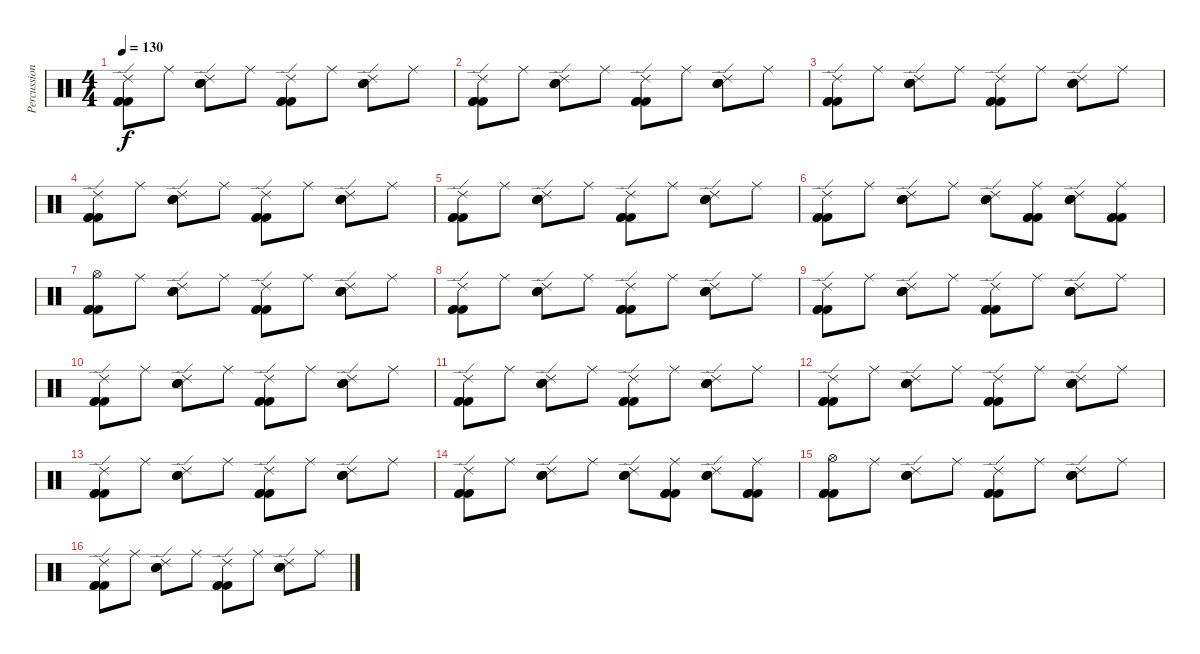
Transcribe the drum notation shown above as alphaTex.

\track ("Percussion" "Percussion") {instrument percussion}
\staff {score}
\articulation defaults
\ts (4 4)
\tempo 130
\clef neutral
\ks c
("Ride (edge) 2" "Kick (hit) 2" "Kick (hit) 2" "Kick (hit) 2").8{dy f} "Ride (middle)".8 ("Ride (edge) 2" "Electric Snare (hit)" "Electric Snare (hit)" "Electric Snare (hit)").8 "Ride (middle)".8 ("Ride (edge) 2" "Kick (hit) 2" "Kick (hit) 2" "Kick (hit) 2").8 "Ride (middle)".8 ("Ride (edge) 2" "Electric Snare (hit)" "Electric Snare (hit)" "Electric Snare (hit)").8 "Ride (middle)".8 |
("Ride (edge) 2" "Kick (hit) 2" "Kick (hit) 2" "Kick (hit) 2").8 "Ride (middle)".8 ("Ride (edge) 2" "Electric Snare (hit)" "Electric Snare (hit)" "Electric Snare (hit)").8 "Ride (middle)".8 ("Ride (edge) 2" "Kick (hit) 2" "Kick (hit) 2" "Kick (hit) 2").8 "Ride (middle)".8 ("Ride (edge) 2" "Electric Snare (hit)" "Electric Snare (hit)" "Electric Snare (hit)").8 "Ride (middle)".8 |
("Ride (edge) 2" "Kick (hit) 2" "Kick (hit) 2" "Kick (hit) 2").8 "Ride (middle)".8 ("Ride (edge) 2" "Electric Snare (hit)" "Electric Snare (hit)" "Electric Snare (hit)").8 "Ride (middle)".8 ("Ride (edge) 2" "Kick (hit) 2" "Kick (hit) 2" "Kick (hit) 2").8 "Ride (middle)".8 ("Ride (edge) 2" "Electric Snare (hit)" "Electric Snare (hit)" "Electric Snare (hit)").8 "Ride (middle)".8 |
("Ride (edge) 2" "Kick (hit) 2" "Kick (hit) 2" "Kick (hit) 2").8 "Ride (middle)".8 ("Ride (edge) 2" "Electric Snare (hit)" "Electric Snare (hit)" "Electric Snare (hit)").8 "Ride (middle)".8 ("Ride (edge) 2" "Kick (hit) 2" "Kick (hit) 2" "Kick (hit) 2").8 "Ride (middle)".8 ("Ride (edge) 2" "Electric Snare (hit)" "Electric Snare (hit)" "Electric Snare (hit)").8 "Ride (middle)".8 |
("Ride (edge) 2" "Kick (hit) 2" "Kick (hit) 2" "Kick (hit) 2").8 "Ride (middle)".8 ("Ride (edge) 2" "Electric Snare (hit)" "Electric Snare (hit)" "Electric Snare (hit)").8 "Ride (middle)".8 ("Ride (edge) 2" "Kick (hit) 2" "Kick (hit) 2" "Kick (hit) 2").8 "Ride (middle)".8 ("Ride (edge) 2" "Electric Snare (hit)" "Electric Snare (hit)" "Electric Snare (hit)").8 "Ride (middle)".8 |
("Ride (edge) 2" "Kick (hit) 2" "Kick (hit) 2" "Kick (hit) 2").8 "Ride (middle)".8 ("Ride (edge) 2" "Electric Snare (hit)" "Electric Snare (hit)" "Electric Snare (hit)").8 "Ride (middle)".8 ("Ride (edge) 2" "Electric Snare (hit)" "Electric Snare (hit)" "Electric Snare (hit)").8 ("Ride (middle)" "Kick (hit) 2" "Kick (hit) 2" "Kick (hit) 2").8 ("Ride (edge) 2" "Electric Snare (hit)" "Electric Snare (hit)" "Electric Snare (hit)").8 ("Ride (middle)" "Kick (hit) 2" "Kick (hit) 2" "Kick (hit) 2").8 |
("Hi-Hat (open)" "Kick (hit) 2" "Kick (hit) 2" "Kick (hit) 2").8 "Ride (middle)".8 ("Ride (edge) 2" "Electric Snare (hit)" "Electric Snare (hit)" "Electric Snare (hit)").8 "Ride (middle)".8 ("Ride (edge) 2" "Kick (hit) 2" "Kick (hit) 2" "Kick (hit) 2").8 "Ride (middle)".8 ("Ride (edge) 2" "Electric Snare (hit)" "Electric Snare (hit)" "Electric Snare (hit)").8 "Ride (middle)".8 |
("Ride (edge) 2" "Kick (hit) 2" "Kick (hit) 2" "Kick (hit) 2").8 "Ride (middle)".8 ("Ride (edge) 2" "Electric Snare (hit)" "Electric Snare (hit)" "Electric Snare (hit)").8 "Ride (middle)".8 ("Ride (edge) 2" "Kick (hit) 2" "Kick (hit) 2" "Kick (hit) 2").8 "Ride (middle)".8 ("Ride (edge) 2" "Electric Snare (hit)" "Electric Snare (hit)" "Electric Snare (hit)").8 "Ride (middle)".8 |
("Ride (edge) 2" "Kick (hit) 2" "Kick (hit) 2" "Kick (hit) 2").8 "Ride (middle)".8 ("Ride (edge) 2" "Electric Snare (hit)" "Electric Snare (hit)" "Electric Snare (hit)").8 "Ride (middle)".8 ("Ride (edge) 2" "Kick (hit) 2" "Kick (hit) 2" "Kick (hit) 2").8 "Ride (middle)".8 ("Ride (edge) 2" "Electric Snare (hit)" "Electric Snare (hit)" "Electric Snare (hit)").8 "Ride (middle)".8 |
("Ride (edge) 2" "Kick (hit) 2" "Kick (hit) 2" "Kick (hit) 2").8 "Ride (middle)".8 ("Ride (edge) 2" "Electric Snare (hit)" "Electric Snare (hit)" "Electric Snare (hit)").8 "Ride (middle)".8 ("Ride (edge) 2" "Kick (hit) 2" "Kick (hit) 2" "Kick (hit) 2").8 "Ride (middle)".8 ("Ride (edge) 2" "Electric Snare (hit)" "Electric Snare (hit)" "Electric Snare (hit)").8 "Ride (middle)".8 |
("Ride (edge) 2" "Kick (hit) 2" "Kick (hit) 2" "Kick (hit) 2").8 "Ride (middle)".8 ("Ride (edge) 2" "Electric Snare (hit)" "Electric Snare (hit)" "Electric Snare (hit)").8 "Ride (middle)".8 ("Ride (edge) 2" "Kick (hit) 2" "Kick (hit) 2" "Kick (hit) 2").8 "Ride (middle)".8 ("Ride (edge) 2" "Electric Snare (hit)" "Electric Snare (hit)" "Electric Snare (hit)").8 "Ride (middle)".8 |
("Ride (edge) 2" "Kick (hit) 2" "Kick (hit) 2" "Kick (hit) 2").8 "Ride (middle)".8 ("Ride (edge) 2" "Electric Snare (hit)" "Electric Snare (hit)" "Electric Snare (hit)").8 "Ride (middle)".8 ("Ride (edge) 2" "Kick (hit) 2" "Kick (hit) 2" "Kick (hit) 2").8 "Ride (middle)".8 ("Ride (edge) 2" "Electric Snare (hit)" "Electric Snare (hit)" "Electric Snare (hit)").8 "Ride (middle)".8 |
("Ride (edge) 2" "Kick (hit) 2" "Kick (hit) 2" "Kick (hit) 2").8 "Ride (middle)".8 ("Ride (edge) 2" "Electric Snare (hit)" "Electric Snare (hit)" "Electric Snare (hit)").8 "Ride (middle)".8 ("Ride (edge) 2" "Kick (hit) 2" "Kick (hit) 2" "Kick (hit) 2").8 "Ride (middle)".8 ("Ride (edge) 2" "Electric Snare (hit)" "Electric Snare (hit)" "Electric Snare (hit)").8 "Ride (middle)".8 |
("Ride (edge) 2" "Kick (hit) 2" "Kick (hit) 2" "Kick (hit) 2").8 "Ride (middle)".8 ("Ride (edge) 2" "Electric Snare (hit)" "Electric Snare (hit)" "Electric Snare (hit)").8 "Ride (middle)".8 ("Ride (edge) 2" "Electric Snare (hit)" "Electric Snare (hit)" "Electric Snare (hit)").8 ("Ride (middle)" "Kick (hit) 2" "Kick (hit) 2" "Kick (hit) 2").8 ("Ride (edge) 2" "Electric Snare (hit)" "Electric Snare (hit)" "Electric Snare (hit)").8 ("Ride (middle)" "Kick (hit) 2" "Kick (hit) 2" "Kick (hit) 2").8 |
("Hi-Hat (open)" "Kick (hit) 2" "Kick (hit) 2" "Kick (hit) 2").8 "Ride (middle)".8 ("Ride (edge) 2" "Electric Snare (hit)" "Electric Snare (hit)" "Electric Snare (hit)").8 "Ride (middle)".8 ("Ride (edge) 2" "Kick (hit) 2" "Kick (hit) 2" "Kick (hit) 2").8 "Ride (middle)".8 ("Ride (edge) 2" "Electric Snare (hit)" "Electric Snare (hit)" "Electric Snare (hit)").8 "Ride (middle)".8 |
("Ride (edge) 2" "Kick (hit) 2" "Kick (hit) 2" "Kick (hit) 2").8 "Ride (middle)".8 ("Ride (edge) 2" "Electric Snare (hit)" "Electric Snare (hit)" "Electric Snare (hit)").8 "Ride (middle)".8 ("Ride (edge) 2" "Kick (hit) 2" "Kick (hit) 2" "Kick (hit) 2").8 "Ride (middle)".8 ("Ride (edge) 2" "Electric Snare (hit)" "Electric Snare (hit)" "Electric Snare (hit)").8 "Ride (middle)".8
